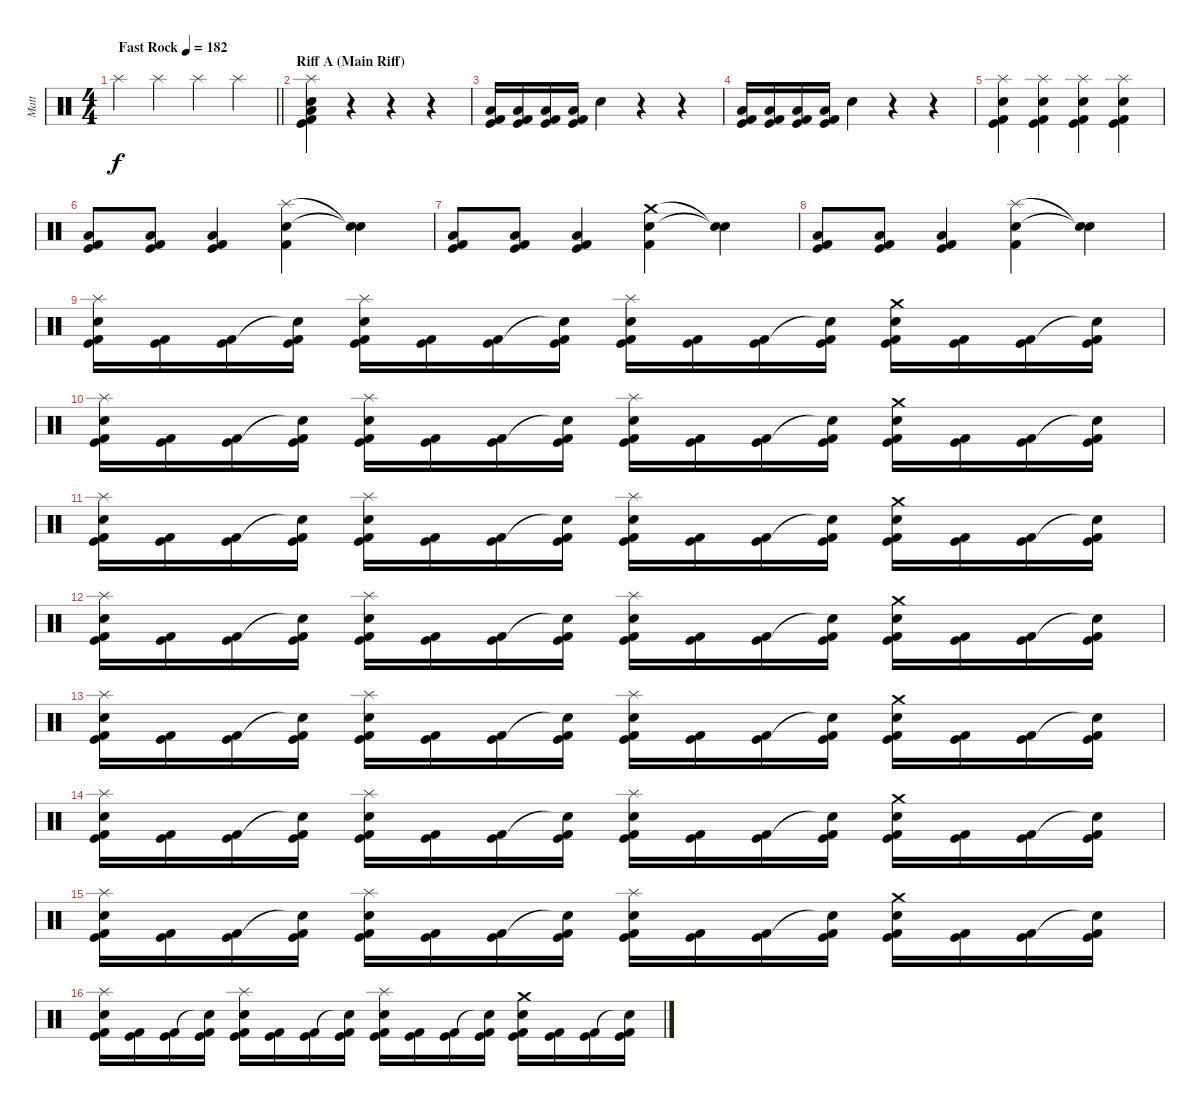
\track ("Matt" "Matt") {instrument percussion}
\staff {score}
\articulation defaults
\ts (4 4)
\tempo (182 "Fast Rock")
\clef neutral
\barLineRight lightlight
\ks c "Splash (hit)".4{dy f} "Splash (hit)".4 "Splash (hit)".4 "Splash (hit)".4
|
\section ("" "Riff A (Main Riff)")
("Splash (hit)" "Electric Snare (hit)" "Low Floor Tom (hit)" "Kick (hit)" "Kick (hit) 2").4 r.4 r.4 r.4 |
("Low Floor Tom (hit)" "Kick (hit)" "Kick (hit) 2").16 ("Low Floor Tom (hit)" "Kick (hit)" "Kick (hit) 2").16 ("Low Floor Tom (hit)" "Kick (hit)" "Kick (hit) 2").16 ("Low Floor Tom (hit)" "Kick (hit)" "Kick (hit) 2").16 "Electric Snare (hit)".4 r.4 r.4 |
("Low Floor Tom (hit)" "Kick (hit)" "Kick (hit) 2").16 ("Low Floor Tom (hit)" "Kick (hit)" "Kick (hit) 2").16 ("Low Floor Tom (hit)" "Kick (hit)" "Kick (hit) 2").16 ("Low Floor Tom (hit)" "Kick (hit)" "Kick (hit) 2").16 "Electric Snare (hit)".4 r.4 r.4 |
("Splash (hit)" "Electric Snare (hit)" "Kick (hit)" "Kick (hit) 2").4 ("Splash (hit)" "Electric Snare (hit)" "Kick (hit)" "Kick (hit) 2").4 ("Splash (hit)" "Electric Snare (hit)" "Kick (hit)" "Kick (hit) 2").4 ("Splash (hit)" "Electric Snare (hit)" "Kick (hit)" "Kick (hit) 2").4 |
("Low Floor Tom (hit)" "Kick (hit)" "Kick (hit) 2").8 ("Low Floor Tom (hit)" "Kick (hit)" "Kick (hit) 2").8 ("Low Floor Tom (hit)" "Kick (hit)" "Kick (hit) 2").4 ("Splash (hit)" "Electric Snare (hit)" "Kick (hit) 2").4 ("Snare (hit)"{t} "Snare (hit)"{t}).4 |
("Low Floor Tom (hit)" "Kick (hit)" "Kick (hit) 2").8 ("Low Floor Tom (hit)" "Kick (hit)" "Kick (hit) 2").8 ("Low Floor Tom (hit)" "Kick (hit)" "Kick (hit) 2").4 ("Crash medium (hit)" "Electric Snare (hit)" "Kick (hit) 2").4 ("Snare (hit)"{t} "Snare (hit)"{t}).4 |
("Low Floor Tom (hit)" "Kick (hit)" "Kick (hit) 2").8 ("Low Floor Tom (hit)" "Kick (hit)" "Kick (hit) 2").8 ("Low Floor Tom (hit)" "Kick (hit)" "Kick (hit) 2").4 ("Splash (hit)" "Electric Snare (hit)" "Kick (hit) 2").4 ("Snare (hit)"{t} "Snare (hit)"{t}).4 |
("Splash (hit)" "Electric Snare (hit)" "Kick (hit)" "Kick (hit) 2").16 ("Kick (hit)" "Kick (hit) 2").16 ("Kick (hit)" "Kick (hit) 2").16 ("Snare (hit)"{t} "Kick (hit)" "Kick (hit) 2").16 ("Splash (hit)" "Electric Snare (hit)" "Kick (hit)" "Kick (hit) 2").16 ("Kick (hit)" "Kick (hit) 2").16 ("Kick (hit)" "Kick (hit) 2").16 ("Snare (hit)"{t} "Kick (hit)" "Kick (hit) 2").16 ("Splash (hit)" "Electric Snare (hit)" "Kick (hit)" "Kick (hit) 2").16 ("Kick (hit)" "Kick (hit) 2").16 ("Kick (hit)" "Kick (hit) 2").16 ("Snare (hit)"{t} "Kick (hit)" "Kick (hit) 2").16 ("Crash medium (hit)" "Electric Snare (hit)" "Kick (hit)" "Kick (hit) 2").16 ("Kick (hit)" "Kick (hit) 2").16 ("Kick (hit)" "Kick (hit) 2").16 ("Snare (hit)"{t} "Kick (hit)" "Kick (hit) 2").16 |
("Splash (hit)" "Electric Snare (hit)" "Kick (hit)" "Kick (hit) 2").16 ("Kick (hit)" "Kick (hit) 2").16 ("Kick (hit)" "Kick (hit) 2").16 ("Snare (hit)"{t} "Kick (hit)" "Kick (hit) 2").16 ("Splash (hit)" "Electric Snare (hit)" "Kick (hit)" "Kick (hit) 2").16 ("Kick (hit)" "Kick (hit) 2").16 ("Kick (hit)" "Kick (hit) 2").16 ("Snare (hit)"{t} "Kick (hit)" "Kick (hit) 2").16 ("Splash (hit)" "Electric Snare (hit)" "Kick (hit)" "Kick (hit) 2").16 ("Kick (hit)" "Kick (hit) 2").16 ("Kick (hit)" "Kick (hit) 2").16 ("Snare (hit)"{t} "Kick (hit)" "Kick (hit) 2").16 ("Crash medium (hit)" "Electric Snare (hit)" "Kick (hit)" "Kick (hit) 2").16 ("Kick (hit)" "Kick (hit) 2").16 ("Kick (hit)" "Kick (hit) 2").16 ("Snare (hit)"{t} "Kick (hit)" "Kick (hit) 2").16 |
("Splash (hit)" "Electric Snare (hit)" "Kick (hit)" "Kick (hit) 2").16 ("Kick (hit)" "Kick (hit) 2").16 ("Kick (hit)" "Kick (hit) 2").16 ("Snare (hit)"{t} "Kick (hit)" "Kick (hit) 2").16 ("Splash (hit)" "Electric Snare (hit)" "Kick (hit)" "Kick (hit) 2").16 ("Kick (hit)" "Kick (hit) 2").16 ("Kick (hit)" "Kick (hit) 2").16 ("Snare (hit)"{t} "Kick (hit)" "Kick (hit) 2").16 ("Splash (hit)" "Electric Snare (hit)" "Kick (hit)" "Kick (hit) 2").16 ("Kick (hit)" "Kick (hit) 2").16 ("Kick (hit)" "Kick (hit) 2").16 ("Snare (hit)"{t} "Kick (hit)" "Kick (hit) 2").16 ("Crash medium (hit)" "Electric Snare (hit)" "Kick (hit)" "Kick (hit) 2").16 ("Kick (hit)" "Kick (hit) 2").16 ("Kick (hit)" "Kick (hit) 2").16 ("Snare (hit)"{t} "Kick (hit)" "Kick (hit) 2").16 |
("Splash (hit)" "Electric Snare (hit)" "Kick (hit)" "Kick (hit) 2").16 ("Kick (hit)" "Kick (hit) 2").16 ("Kick (hit)" "Kick (hit) 2").16 ("Snare (hit)"{t} "Kick (hit)" "Kick (hit) 2").16 ("Splash (hit)" "Electric Snare (hit)" "Kick (hit)" "Kick (hit) 2").16 ("Kick (hit)" "Kick (hit) 2").16 ("Kick (hit)" "Kick (hit) 2").16 ("Snare (hit)"{t} "Kick (hit)" "Kick (hit) 2").16 ("Splash (hit)" "Electric Snare (hit)" "Kick (hit)" "Kick (hit) 2").16 ("Kick (hit)" "Kick (hit) 2").16 ("Kick (hit)" "Kick (hit) 2").16 ("Snare (hit)"{t} "Kick (hit)" "Kick (hit) 2").16 ("Crash medium (hit)" "Electric Snare (hit)" "Kick (hit)" "Kick (hit) 2").16 ("Kick (hit)" "Kick (hit) 2").16 ("Kick (hit)" "Kick (hit) 2").16 ("Snare (hit)"{t} "Kick (hit)" "Kick (hit) 2").16 |
("Splash (hit)" "Electric Snare (hit)" "Kick (hit)" "Kick (hit) 2").16 ("Kick (hit)" "Kick (hit) 2").16 ("Kick (hit)" "Kick (hit) 2").16 ("Snare (hit)"{t} "Kick (hit)" "Kick (hit) 2").16 ("Splash (hit)" "Electric Snare (hit)" "Kick (hit)" "Kick (hit) 2").16 ("Kick (hit)" "Kick (hit) 2").16 ("Kick (hit)" "Kick (hit) 2").16 ("Snare (hit)"{t} "Kick (hit)" "Kick (hit) 2").16 ("Splash (hit)" "Electric Snare (hit)" "Kick (hit)" "Kick (hit) 2").16 ("Kick (hit)" "Kick (hit) 2").16 ("Kick (hit)" "Kick (hit) 2").16 ("Snare (hit)"{t} "Kick (hit)" "Kick (hit) 2").16 ("Crash medium (hit)" "Electric Snare (hit)" "Kick (hit)" "Kick (hit) 2").16 ("Kick (hit)" "Kick (hit) 2").16 ("Kick (hit)" "Kick (hit) 2").16 ("Snare (hit)"{t} "Kick (hit)" "Kick (hit) 2").16 |
("Splash (hit)" "Electric Snare (hit)" "Kick (hit)" "Kick (hit) 2").16 ("Kick (hit)" "Kick (hit) 2").16 ("Kick (hit)" "Kick (hit) 2").16 ("Snare (hit)"{t} "Kick (hit)" "Kick (hit) 2").16 ("Splash (hit)" "Electric Snare (hit)" "Kick (hit)" "Kick (hit) 2").16 ("Kick (hit)" "Kick (hit) 2").16 ("Kick (hit)" "Kick (hit) 2").16 ("Snare (hit)"{t} "Kick (hit)" "Kick (hit) 2").16 ("Splash (hit)" "Electric Snare (hit)" "Kick (hit)" "Kick (hit) 2").16 ("Kick (hit)" "Kick (hit) 2").16 ("Kick (hit)" "Kick (hit) 2").16 ("Snare (hit)"{t} "Kick (hit)" "Kick (hit) 2").16 ("Crash medium (hit)" "Electric Snare (hit)" "Kick (hit)" "Kick (hit) 2").16 ("Kick (hit)" "Kick (hit) 2").16 ("Kick (hit)" "Kick (hit) 2").16 ("Snare (hit)"{t} "Kick (hit)" "Kick (hit) 2").16 |
("Splash (hit)" "Electric Snare (hit)" "Kick (hit)" "Kick (hit) 2").16 ("Kick (hit)" "Kick (hit) 2").16 ("Kick (hit)" "Kick (hit) 2").16 ("Snare (hit)"{t} "Kick (hit)" "Kick (hit) 2").16 ("Splash (hit)" "Electric Snare (hit)" "Kick (hit)" "Kick (hit) 2").16 ("Kick (hit)" "Kick (hit) 2").16 ("Kick (hit)" "Kick (hit) 2").16 ("Snare (hit)"{t} "Kick (hit)" "Kick (hit) 2").16 ("Splash (hit)" "Electric Snare (hit)" "Kick (hit)" "Kick (hit) 2").16 ("Kick (hit)" "Kick (hit) 2").16 ("Kick (hit)" "Kick (hit) 2").16 ("Snare (hit)"{t} "Kick (hit)" "Kick (hit) 2").16 ("Crash medium (hit)" "Electric Snare (hit)" "Kick (hit)" "Kick (hit) 2").16 ("Kick (hit)" "Kick (hit) 2").16 ("Kick (hit)" "Kick (hit) 2").16 ("Snare (hit)"{t} "Kick (hit)" "Kick (hit) 2").16 |
("Splash (hit)" "Electric Snare (hit)" "Kick (hit)" "Kick (hit) 2").16 ("Kick (hit)" "Kick (hit) 2").16 ("Kick (hit)" "Kick (hit) 2").16 ("Snare (hit)"{t} "Kick (hit)" "Kick (hit) 2").16 ("Splash (hit)" "Electric Snare (hit)" "Kick (hit)" "Kick (hit) 2").16 ("Kick (hit)" "Kick (hit) 2").16 ("Kick (hit)" "Kick (hit) 2").16 ("Snare (hit)"{t} "Kick (hit)" "Kick (hit) 2").16 ("Splash (hit)" "Electric Snare (hit)" "Kick (hit)" "Kick (hit) 2").16 ("Kick (hit)" "Kick (hit) 2").16 ("Kick (hit)" "Kick (hit) 2").16 ("Snare (hit)"{t} "Kick (hit)" "Kick (hit) 2").16 ("Crash medium (hit)" "Electric Snare (hit)" "Kick (hit)" "Kick (hit) 2").16 ("Kick (hit)" "Kick (hit) 2").16 ("Kick (hit)" "Kick (hit) 2").16 ("Snare (hit)"{t} "Kick (hit)" "Kick (hit) 2").16
